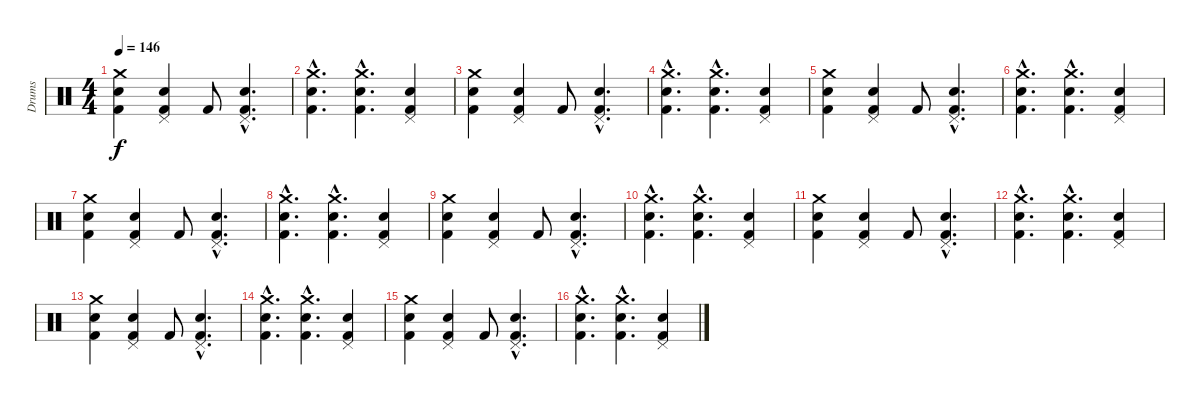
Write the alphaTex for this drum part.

\track ("Drums" "Drums") {instrument percussion}
\staff {score}
\articulation defaults
\ts (4 4)
\tempo 146
\clef neutral
\ks c
("Crash medium (hit)" "Snare (hit) 2" "Kick (hit) 2").4{dy f} ("Pedal Hi-Hat (hit)" "Snare (hit) 2" "Kick (hit) 2").4 "Kick (hit) 2".8 ("Pedal Hi-Hat (hit)"{hac} "Snare (hit) 2"{hac} "Kick (hit) 2"{hac}).4{d} |
("Crash medium (hit)"{hac} "Snare (hit) 2"{hac} "Kick (hit) 2"{hac}).4{d} ("Crash medium (hit)"{hac} "Snare (hit) 2"{hac} "Kick (hit) 2"{hac}).4{d} ("Pedal Hi-Hat (hit)" "Snare (hit) 2" "Kick (hit) 2").4 |
("Crash medium (hit)" "Snare (hit) 2" "Kick (hit) 2").4 ("Pedal Hi-Hat (hit)" "Snare (hit) 2" "Kick (hit) 2").4 "Kick (hit) 2".8 ("Pedal Hi-Hat (hit)"{hac} "Snare (hit) 2"{hac} "Kick (hit) 2"{hac}).4{d} |
("Crash medium (hit)"{hac} "Snare (hit) 2"{hac} "Kick (hit) 2"{hac}).4{d} ("Crash medium (hit)"{hac} "Snare (hit) 2"{hac} "Kick (hit) 2"{hac}).4{d} ("Pedal Hi-Hat (hit)" "Snare (hit) 2" "Kick (hit) 2").4 |
("Crash medium (hit)" "Snare (hit) 2" "Kick (hit) 2").4 ("Pedal Hi-Hat (hit)" "Snare (hit) 2" "Kick (hit) 2").4 "Kick (hit) 2".8 ("Pedal Hi-Hat (hit)"{hac} "Snare (hit) 2"{hac} "Kick (hit) 2"{hac}).4{d} |
("Crash medium (hit)"{hac} "Snare (hit) 2"{hac} "Kick (hit) 2"{hac}).4{d} ("Crash medium (hit)"{hac} "Snare (hit) 2"{hac} "Kick (hit) 2"{hac}).4{d} ("Pedal Hi-Hat (hit)" "Snare (hit) 2" "Kick (hit) 2").4 |
("Crash medium (hit)" "Snare (hit) 2" "Kick (hit) 2").4 ("Pedal Hi-Hat (hit)" "Snare (hit) 2" "Kick (hit) 2").4 "Kick (hit) 2".8 ("Pedal Hi-Hat (hit)"{hac} "Snare (hit) 2"{hac} "Kick (hit) 2"{hac}).4{d} |
("Crash medium (hit)"{hac} "Snare (hit) 2"{hac} "Kick (hit) 2"{hac}).4{d} ("Crash medium (hit)"{hac} "Snare (hit) 2"{hac} "Kick (hit) 2"{hac}).4{d} ("Pedal Hi-Hat (hit)" "Snare (hit) 2" "Kick (hit) 2").4 |
("Crash medium (hit)" "Snare (hit) 2" "Kick (hit) 2").4 ("Pedal Hi-Hat (hit)" "Snare (hit) 2" "Kick (hit) 2").4 "Kick (hit) 2".8 ("Pedal Hi-Hat (hit)"{hac} "Snare (hit) 2"{hac} "Kick (hit) 2"{hac}).4{d} |
("Crash medium (hit)"{hac} "Snare (hit) 2"{hac} "Kick (hit) 2"{hac}).4{d} ("Crash medium (hit)"{hac} "Snare (hit) 2"{hac} "Kick (hit) 2"{hac}).4{d} ("Pedal Hi-Hat (hit)" "Snare (hit) 2" "Kick (hit) 2").4 |
("Crash medium (hit)" "Snare (hit) 2" "Kick (hit) 2").4 ("Pedal Hi-Hat (hit)" "Snare (hit) 2" "Kick (hit) 2").4 "Kick (hit) 2".8 ("Pedal Hi-Hat (hit)"{hac} "Snare (hit) 2"{hac} "Kick (hit) 2"{hac}).4{d} |
("Crash medium (hit)"{hac} "Snare (hit) 2"{hac} "Kick (hit) 2"{hac}).4{d} ("Crash medium (hit)"{hac} "Snare (hit) 2"{hac} "Kick (hit) 2"{hac}).4{d} ("Pedal Hi-Hat (hit)" "Snare (hit) 2" "Kick (hit) 2").4 |
("Crash medium (hit)" "Snare (hit) 2" "Kick (hit) 2").4 ("Pedal Hi-Hat (hit)" "Snare (hit) 2" "Kick (hit) 2").4 "Kick (hit) 2".8 ("Pedal Hi-Hat (hit)"{hac} "Snare (hit) 2"{hac} "Kick (hit) 2"{hac}).4{d} |
("Crash medium (hit)"{hac} "Snare (hit) 2"{hac} "Kick (hit) 2"{hac}).4{d} ("Crash medium (hit)"{hac} "Snare (hit) 2"{hac} "Kick (hit) 2"{hac}).4{d} ("Pedal Hi-Hat (hit)" "Snare (hit) 2" "Kick (hit) 2").4 |
("Crash medium (hit)" "Snare (hit) 2" "Kick (hit) 2").4 ("Pedal Hi-Hat (hit)" "Snare (hit) 2" "Kick (hit) 2").4 "Kick (hit) 2".8 ("Pedal Hi-Hat (hit)"{hac} "Snare (hit) 2"{hac} "Kick (hit) 2"{hac}).4{d} |
("Crash medium (hit)"{hac} "Snare (hit) 2"{hac} "Kick (hit) 2"{hac}).4{d} ("Crash medium (hit)"{hac} "Snare (hit) 2"{hac} "Kick (hit) 2"{hac}).4{d} ("Pedal Hi-Hat (hit)" "Snare (hit) 2" "Kick (hit) 2").4
